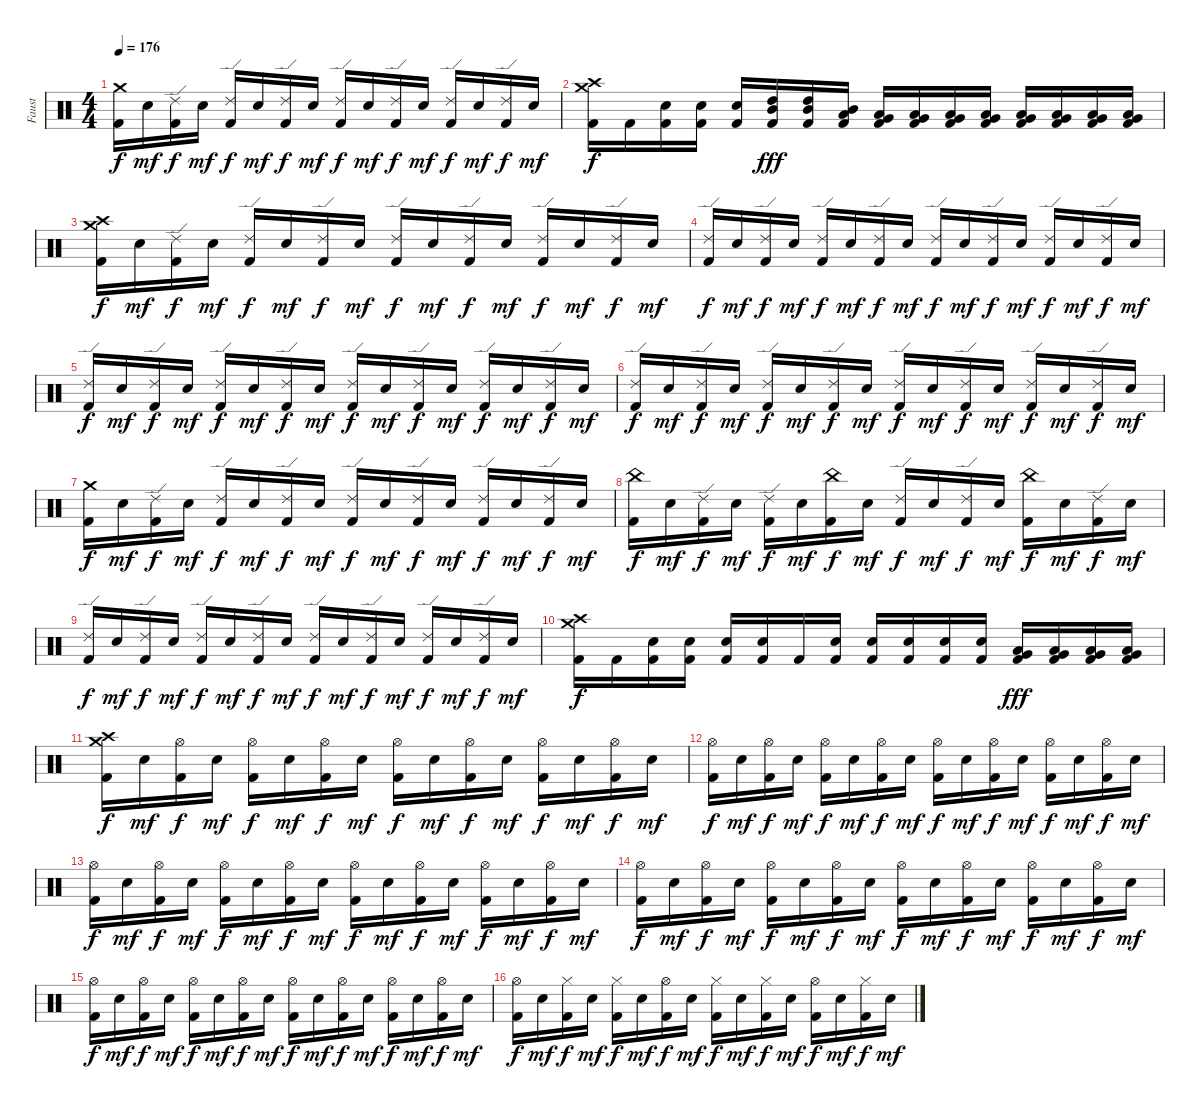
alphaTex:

\track ("Faust" "Faust") {instrument percussion}
\staff {score}
\articulation defaults
\ts (4 4)
\tempo 176
\clef neutral
\ks c
("Crash medium (hit)" "Kick (hit) 2").16{dy f} "Electric Snare (hit)".16{dy mf} ("Ride (edge) 2" "Kick (hit) 2").16{dy f} "Electric Snare (hit)".16{dy mf} ("Ride (edge) 2" "Kick (hit) 2").16{dy f} "Electric Snare (hit)".16{dy mf} ("Ride (edge) 2" "Kick (hit) 2").16{dy f} "Electric Snare (hit)".16{dy mf} ("Ride (edge) 2" "Kick (hit) 2").16{dy f} "Electric Snare (hit)".16{dy mf} ("Ride (edge) 2" "Kick (hit) 2").16{dy f} "Electric Snare (hit)".16{dy mf} ("Ride (edge) 2" "Kick (hit) 2").16{dy f} "Electric Snare (hit)".16{dy mf} ("Ride (edge) 2" "Kick (hit) 2").16{dy f} "Electric Snare (hit)".16{dy mf} |
("Crash medium (hit)" "Crash high (hit)" "Kick (hit) 2").16{dy f} "Kick (hit) 2".16 ("Electric Snare (hit)" "Kick (hit) 2").16 ("Electric Snare (hit)" "Kick (hit) 2").16 ("Electric Snare (hit)" "Kick (hit) 2").16 ("High Tom (hit)" "Mid Tom (hit)" "Kick (hit) 2").16{dy fff} ("High Tom (hit)" "Mid Tom (hit)" "Kick (hit) 2").16 ("Mid Tom (hit)" "Low Tom (hit)" "Kick (hit) 2").16 ("Low Tom (hit)" "Very Low Tom (hit)" "Kick (hit) 2").16 ("Low Tom (hit)" "Very Low Tom (hit)" "Kick (hit) 2").16 ("Low Tom (hit)" "Very Low Tom (hit)" "Kick (hit) 2").16 ("Low Tom (hit)" "Very Low Tom (hit)" "Kick (hit) 2").16 ("Very Low Tom (hit)" "Low Floor Tom (hit)" "Kick (hit) 2").16 ("Very Low Tom (hit)" "Low Floor Tom (hit)" "Kick (hit) 2").16 ("Very Low Tom (hit)" "Low Floor Tom (hit)" "Kick (hit) 2").16 ("Very Low Tom (hit)" "Low Floor Tom (hit)" "Kick (hit) 2").16 |
("Crash high (hit)" "Crash medium (hit)" "Kick (hit) 2").16{dy f} "Electric Snare (hit)".16{dy mf} ("Ride (edge) 2" "Kick (hit) 2").16{dy f} "Electric Snare (hit)".16{dy mf} ("Ride (edge) 2" "Kick (hit) 2").16{dy f} "Electric Snare (hit)".16{dy mf} ("Ride (edge) 2" "Kick (hit) 2").16{dy f} "Electric Snare (hit)".16{dy mf} ("Ride (edge) 2" "Kick (hit) 2").16{dy f} "Electric Snare (hit)".16{dy mf} ("Ride (edge) 2" "Kick (hit) 2").16{dy f} "Electric Snare (hit)".16{dy mf} ("Ride (edge) 2" "Kick (hit) 2").16{dy f} "Electric Snare (hit)".16{dy mf} ("Ride (edge) 2" "Kick (hit) 2").16{dy f} "Electric Snare (hit)".16{dy mf} |
("Ride (edge) 2" "Kick (hit) 2").16{dy f} "Electric Snare (hit)".16{dy mf} ("Ride (edge) 2" "Kick (hit) 2").16{dy f} "Electric Snare (hit)".16{dy mf} ("Ride (edge) 2" "Kick (hit) 2").16{dy f} "Electric Snare (hit)".16{dy mf} ("Ride (edge) 2" "Kick (hit) 2").16{dy f} "Electric Snare (hit)".16{dy mf} ("Ride (edge) 2" "Kick (hit) 2").16{dy f} "Electric Snare (hit)".16{dy mf} ("Ride (edge) 2" "Kick (hit) 2").16{dy f} "Electric Snare (hit)".16{dy mf} ("Ride (edge) 2" "Kick (hit) 2").16{dy f} "Electric Snare (hit)".16{dy mf} ("Ride (edge) 2" "Kick (hit) 2").16{dy f} "Electric Snare (hit)".16{dy mf} |
("Ride (edge) 2" "Kick (hit) 2").16{dy f} "Electric Snare (hit)".16{dy mf} ("Ride (edge) 2" "Kick (hit) 2").16{dy f} "Electric Snare (hit)".16{dy mf} ("Ride (edge) 2" "Kick (hit) 2").16{dy f} "Electric Snare (hit)".16{dy mf} ("Ride (edge) 2" "Kick (hit) 2").16{dy f} "Electric Snare (hit)".16{dy mf} ("Ride (edge) 2" "Kick (hit) 2").16{dy f} "Electric Snare (hit)".16{dy mf} ("Ride (edge) 2" "Kick (hit) 2").16{dy f} "Electric Snare (hit)".16{dy mf} ("Ride (edge) 2" "Kick (hit) 2").16{dy f} "Electric Snare (hit)".16{dy mf} ("Ride (edge) 2" "Kick (hit) 2").16{dy f} "Electric Snare (hit)".16{dy mf} |
("Ride (edge) 2" "Kick (hit) 2").16{dy f} "Electric Snare (hit)".16{dy mf} ("Ride (edge) 2" "Kick (hit) 2").16{dy f} "Electric Snare (hit)".16{dy mf} ("Ride (edge) 2" "Kick (hit) 2").16{dy f} "Electric Snare (hit)".16{dy mf} ("Ride (edge) 2" "Kick (hit) 2").16{dy f} "Electric Snare (hit)".16{dy mf} ("Ride (edge) 2" "Kick (hit) 2").16{dy f} "Electric Snare (hit)".16{dy mf} ("Ride (edge) 2" "Kick (hit) 2").16{dy f} "Electric Snare (hit)".16{dy mf} ("Ride (edge) 2" "Kick (hit) 2").16{dy f} "Electric Snare (hit)".16{dy mf} ("Ride (edge) 2" "Kick (hit) 2").16{dy f} "Electric Snare (hit)".16{dy mf} |
("Crash medium (hit)" "Kick (hit) 2").16{dy f} "Electric Snare (hit)".16{dy mf} ("Ride (edge) 2" "Kick (hit) 2").16{dy f} "Electric Snare (hit)".16{dy mf} ("Ride (edge) 2" "Kick (hit) 2").16{dy f} "Electric Snare (hit)".16{dy mf} ("Ride (edge) 2" "Kick (hit) 2").16{dy f} "Electric Snare (hit)".16{dy mf} ("Ride (edge) 2" "Kick (hit) 2").16{dy f} "Electric Snare (hit)".16{dy mf} ("Ride (edge) 2" "Kick (hit) 2").16{dy f} "Electric Snare (hit)".16{dy mf} ("Ride (edge) 2" "Kick (hit) 2").16{dy f} "Electric Snare (hit)".16{dy mf} ("Ride (edge) 2" "Kick (hit) 2").16{dy f} "Electric Snare (hit)".16{dy mf} |
("China (hit)" "Kick (hit) 2").16{dy f} "Electric Snare (hit)".16{dy mf} ("Ride (edge) 2" "Kick (hit) 2").16{dy f} "Electric Snare (hit)".16{dy mf} ("Ride (edge) 2" "Kick (hit) 2").16{dy f} "Electric Snare (hit)".16{dy mf} ("China (hit)" "Kick (hit) 2").16{dy f} "Electric Snare (hit)".16{dy mf} ("Ride (edge) 2" "Kick (hit) 2").16{dy f} "Electric Snare (hit)".16{dy mf} ("Ride (edge) 2" "Kick (hit) 2").16{dy f} "Electric Snare (hit)".16{dy mf} ("China (hit)" "Kick (hit) 2").16{dy f} "Electric Snare (hit)".16{dy mf} ("Ride (edge) 2" "Kick (hit) 2").16{dy f} "Electric Snare (hit)".16{dy mf} |
("Ride (edge) 2" "Kick (hit) 2").16{dy f} "Electric Snare (hit)".16{dy mf} ("Ride (edge) 2" "Kick (hit) 2").16{dy f} "Electric Snare (hit)".16{dy mf} ("Ride (edge) 2" "Kick (hit) 2").16{dy f} "Electric Snare (hit)".16{dy mf} ("Ride (edge) 2" "Kick (hit) 2").16{dy f} "Electric Snare (hit)".16{dy mf} ("Ride (edge) 2" "Kick (hit) 2").16{dy f} "Electric Snare (hit)".16{dy mf} ("Ride (edge) 2" "Kick (hit) 2").16{dy f} "Electric Snare (hit)".16{dy mf} ("Ride (edge) 2" "Kick (hit) 2").16{dy f} "Electric Snare (hit)".16{dy mf} ("Ride (edge) 2" "Kick (hit) 2").16{dy f} "Electric Snare (hit)".16{dy mf} |
("Crash high (hit)" "Crash medium (hit)" "Kick (hit) 2").16{dy f} "Kick (hit) 2".16 ("Electric Snare (hit)" "Kick (hit) 2").16 ("Electric Snare (hit)" "Kick (hit) 2").16 ("Electric Snare (hit)" "Kick (hit) 2").16 ("Electric Snare (hit)" "Kick (hit) 2").16 "Kick (hit) 2".16 ("Electric Snare (hit)" "Kick (hit) 2").16 ("Electric Snare (hit)" "Kick (hit) 2").16 ("Electric Snare (hit)" "Kick (hit) 2").16 ("Electric Snare (hit)" "Kick (hit) 2").16 ("Electric Snare (hit)" "Kick (hit) 2").16 ("Very Low Tom (hit)" "Low Tom (hit)" "Kick (hit) 2").16{dy fff} ("Very Low Tom (hit)" "Low Tom (hit)" "Kick (hit) 2").16 ("Low Floor Tom (hit)" "Very Low Tom (hit)" "Kick (hit) 2").16 ("Low Floor Tom (hit)" "Very Low Tom (hit)" "Kick (hit) 2").16 |
("Crash high (hit)" "Crash medium (hit)" "Kick (hit) 2").16{dy f} "Electric Snare (hit)".16{dy mf} ("Hi-Hat (open)" "Kick (hit) 2").16{dy f} "Electric Snare (hit)".16{dy mf} ("Hi-Hat (open)" "Kick (hit) 2").16{dy f} "Electric Snare (hit)".16{dy mf} ("Hi-Hat (open)" "Kick (hit) 2").16{dy f} "Electric Snare (hit)".16{dy mf} ("Hi-Hat (open)" "Kick (hit) 2").16{dy f} "Electric Snare (hit)".16{dy mf} ("Hi-Hat (open)" "Kick (hit) 2").16{dy f} "Electric Snare (hit)".16{dy mf} ("Hi-Hat (open)" "Kick (hit) 2").16{dy f} "Electric Snare (hit)".16{dy mf} ("Hi-Hat (open)" "Kick (hit) 2").16{dy f} "Electric Snare (hit)".16{dy mf} |
("Hi-Hat (open)" "Kick (hit) 2").16{dy f} "Electric Snare (hit)".16{dy mf} ("Hi-Hat (open)" "Kick (hit) 2").16{dy f} "Electric Snare (hit)".16{dy mf} ("Hi-Hat (open)" "Kick (hit) 2").16{dy f} "Electric Snare (hit)".16{dy mf} ("Hi-Hat (open)" "Kick (hit) 2").16{dy f} "Electric Snare (hit)".16{dy mf} ("Hi-Hat (open)" "Kick (hit) 2").16{dy f} "Electric Snare (hit)".16{dy mf} ("Hi-Hat (open)" "Kick (hit) 2").16{dy f} "Electric Snare (hit)".16{dy mf} ("Hi-Hat (open)" "Kick (hit) 2").16{dy f} "Electric Snare (hit)".16{dy mf} ("Hi-Hat (open)" "Kick (hit) 2").16{dy f} "Electric Snare (hit)".16{dy mf} |
("Hi-Hat (open)" "Kick (hit) 2").16{dy f} "Electric Snare (hit)".16{dy mf} ("Hi-Hat (open)" "Kick (hit) 2").16{dy f} "Electric Snare (hit)".16{dy mf} ("Hi-Hat (open)" "Kick (hit) 2").16{dy f} "Electric Snare (hit)".16{dy mf} ("Hi-Hat (open)" "Kick (hit) 2").16{dy f} "Electric Snare (hit)".16{dy mf} ("Hi-Hat (open)" "Kick (hit) 2").16{dy f} "Electric Snare (hit)".16{dy mf} ("Hi-Hat (open)" "Kick (hit) 2").16{dy f} "Electric Snare (hit)".16{dy mf} ("Hi-Hat (open)" "Kick (hit) 2").16{dy f} "Electric Snare (hit)".16{dy mf} ("Hi-Hat (open)" "Kick (hit) 2").16{dy f} "Electric Snare (hit)".16{dy mf} |
("Hi-Hat (open)" "Kick (hit) 2").16{dy f} "Electric Snare (hit)".16{dy mf} ("Hi-Hat (open)" "Kick (hit) 2").16{dy f} "Electric Snare (hit)".16{dy mf} ("Hi-Hat (open)" "Kick (hit) 2").16{dy f} "Electric Snare (hit)".16{dy mf} ("Hi-Hat (open)" "Kick (hit) 2").16{dy f} "Electric Snare (hit)".16{dy mf} ("Hi-Hat (open)" "Kick (hit) 2").16{dy f} "Electric Snare (hit)".16{dy mf} ("Hi-Hat (open)" "Kick (hit) 2").16{dy f} "Electric Snare (hit)".16{dy mf} ("Hi-Hat (open)" "Kick (hit) 2").16{dy f} "Electric Snare (hit)".16{dy mf} ("Hi-Hat (open)" "Kick (hit) 2").16{dy f} "Electric Snare (hit)".16{dy mf} |
("Hi-Hat (open)" "Kick (hit) 2").16{dy f} "Electric Snare (hit)".16{dy mf} ("Hi-Hat (open)" "Kick (hit) 2").16{dy f} "Electric Snare (hit)".16{dy mf} ("Hi-Hat (open)" "Kick (hit) 2").16{dy f} "Electric Snare (hit)".16{dy mf} ("Hi-Hat (open)" "Kick (hit) 2").16{dy f} "Electric Snare (hit)".16{dy mf} ("Hi-Hat (open)" "Kick (hit) 2").16{dy f} "Electric Snare (hit)".16{dy mf} ("Hi-Hat (open)" "Kick (hit) 2").16{dy f} "Electric Snare (hit)".16{dy mf} ("Hi-Hat (open)" "Kick (hit) 2").16{dy f} "Electric Snare (hit)".16{dy mf} ("Hi-Hat (open)" "Kick (hit) 2").16{dy f} "Electric Snare (hit)".16{dy mf} |
("Hi-Hat (open)" "Kick (hit) 2").16{dy f} "Electric Snare (hit)".16{dy mf} ("Hi-Hat (closed)" "Kick (hit) 2").16{dy f} "Electric Snare (hit)".16{dy mf} ("Hi-Hat (closed)" "Kick (hit) 2").16{dy f} "Electric Snare (hit)".16{dy mf} ("Hi-Hat (open)" "Kick (hit) 2").16{dy f} "Electric Snare (hit)".16{dy mf} ("Hi-Hat (closed)" "Kick (hit) 2").16{dy f} "Electric Snare (hit)".16{dy mf} ("Hi-Hat (closed)" "Kick (hit) 2").16{dy f} "Electric Snare (hit)".16{dy mf} ("Hi-Hat (open)" "Kick (hit) 2").16{dy f} "Electric Snare (hit)".16{dy mf} ("Hi-Hat (closed)" "Kick (hit) 2").16{dy f} "Electric Snare (hit)".16{dy mf}
